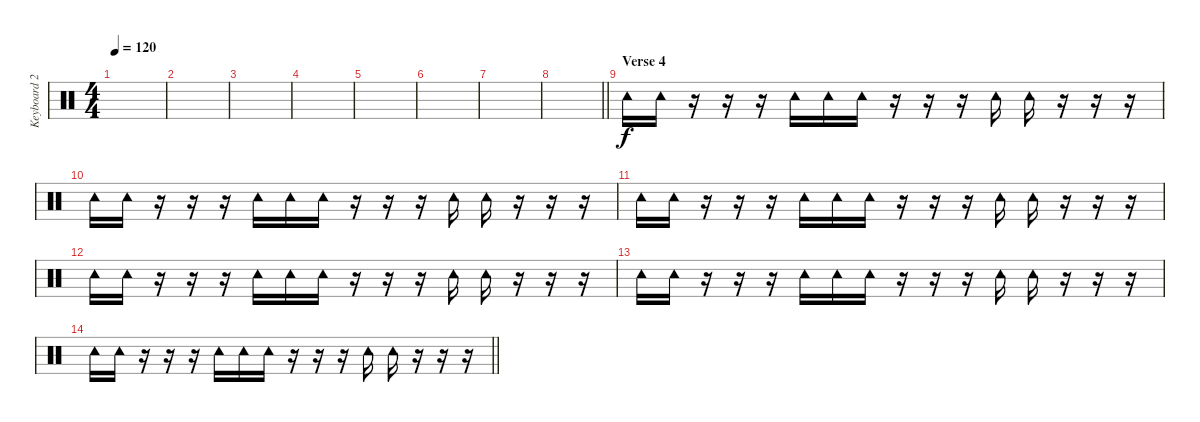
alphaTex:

\track ("Keyboard 2" "Keyboard 2") {instrument percussion}
\staff {score}
\articulation defaults
\ts (4 4)
\tempo 120
\clef neutral
\ks c
|
|
|
|
|
|
|
\barLineRight lightlight
|
\section ("" "Verse 4")
"Tambourine (hit)".16 "Tambourine (hit)".16 r.16 r.16 r.16 "Tambourine (hit)".16 "Tambourine (hit)".16 "Tambourine (hit)".16 r.16 r.16 r.16 "Tambourine (hit)".16 "Tambourine (hit)".16 r.16 r.16 r.16 |
"Tambourine (hit)".16 "Tambourine (hit)".16 r.16 r.16 r.16 "Tambourine (hit)".16 "Tambourine (hit)".16 "Tambourine (hit)".16 r.16 r.16 r.16 "Tambourine (hit)".16 "Tambourine (hit)".16 r.16 r.16 r.16 |
"Tambourine (hit)".16 "Tambourine (hit)".16 r.16 r.16 r.16 "Tambourine (hit)".16 "Tambourine (hit)".16 "Tambourine (hit)".16 r.16 r.16 r.16 "Tambourine (hit)".16 "Tambourine (hit)".16 r.16 r.16 r.16 |
"Tambourine (hit)".16 "Tambourine (hit)".16 r.16 r.16 r.16 "Tambourine (hit)".16 "Tambourine (hit)".16 "Tambourine (hit)".16 r.16 r.16 r.16 "Tambourine (hit)".16 "Tambourine (hit)".16 r.16 r.16 r.16 |
"Tambourine (hit)".16 "Tambourine (hit)".16 r.16 r.16 r.16 "Tambourine (hit)".16 "Tambourine (hit)".16 "Tambourine (hit)".16 r.16 r.16 r.16 "Tambourine (hit)".16 "Tambourine (hit)".16 r.16 r.16 r.16 |
\barLineRight lightlight "Tambourine (hit)".16 "Tambourine (hit)".16
r.16 r.16 r.16 "Tambourine (hit)".16 "Tambourine (hit)".16 "Tambourine (hit)".16 r.16 r.16 r.16 "Tambourine (hit)".16 "Tambourine (hit)".16 r.16 r.16 r.16
